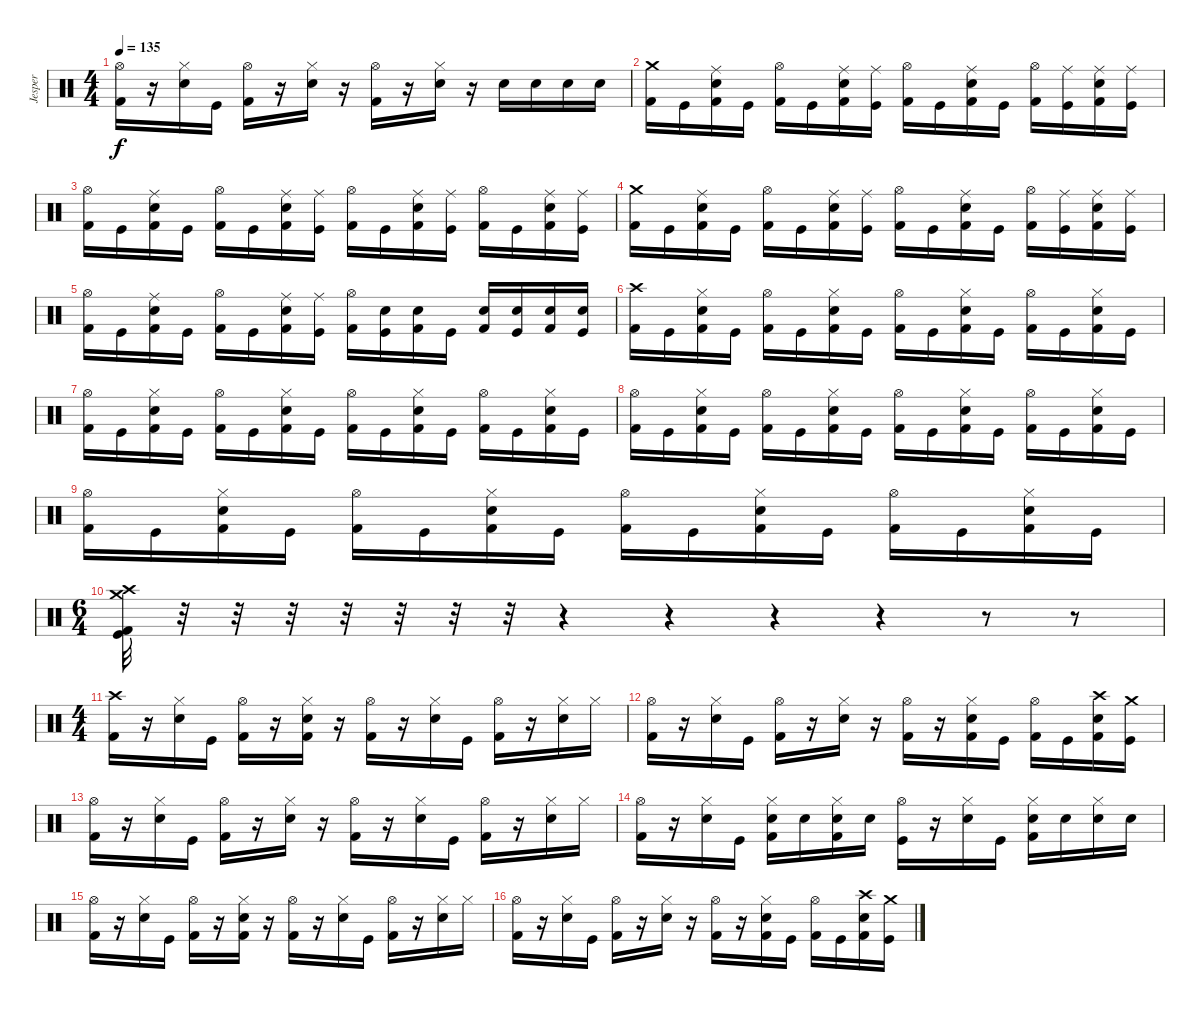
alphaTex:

\track ("Jesper" "Jesper") {instrument percussion}
\staff {score}
\articulation defaults
\ts (4 4)
\tempo 135
\clef neutral
\ks c
("Kick (hit) 2" "Hi-Hat (open)").16{dy f} r.16 ("Snare (hit) 2" "Hi-Hat (closed)").16 "Kick (hit)".16 ("Kick (hit) 2" "Hi-Hat (open)").16 r.16 ("Snare (hit) 2" "Hi-Hat (closed)").16 r.16 ("Kick (hit) 2" "Hi-Hat (open)").16 r.16 ("Snare (hit) 2" "Hi-Hat (closed)").16 r.16 "Snare (hit) 2".16 "Snare (hit) 2".16 "Snare (hit) 2".16 "Snare (hit) 2".16 |
("Kick (hit) 2" "Crash medium (hit)").16 "Kick (hit)".16 ("Kick (hit) 2" "Snare (hit) 2" "Ride (middle)").16 "Kick (hit)".16 ("Kick (hit) 2" "Hi-Hat (open)").16 "Kick (hit)".16 ("Kick (hit) 2" "Snare (hit) 2" "Ride (middle)").16 ("Kick (hit)" "Ride (middle)").16 ("Kick (hit) 2" "Hi-Hat (open)").16 "Kick (hit)".16 ("Kick (hit) 2" "Snare (hit) 2" "Ride (middle)").16 "Kick (hit)".16 ("Kick (hit) 2" "Hi-Hat (open)").16 ("Kick (hit)" "Ride (middle)").16 ("Kick (hit) 2" "Snare (hit) 2" "Ride (middle)").16 ("Kick (hit)" "Ride (middle)").16 |
("Kick (hit) 2" "Hi-Hat (open)").16 "Kick (hit)".16 ("Kick (hit) 2" "Snare (hit) 2" "Ride (middle)").16 "Kick (hit)".16 ("Kick (hit) 2" "Hi-Hat (open)").16 "Kick (hit)".16 ("Kick (hit) 2" "Snare (hit) 2" "Ride (middle)").16 ("Kick (hit)" "Ride (middle)").16 ("Kick (hit) 2" "Hi-Hat (open)").16 "Kick (hit)".16 ("Kick (hit) 2" "Snare (hit) 2" "Ride (middle)").16 ("Kick (hit)" "Ride (middle)").16 ("Kick (hit) 2" "Hi-Hat (open)").16 "Kick (hit)".16 ("Kick (hit) 2" "Snare (hit) 2" "Ride (middle)").16 ("Kick (hit)" "Ride (middle)").16 |
("Kick (hit) 2" "Crash medium (hit)").16 "Kick (hit)".16 ("Kick (hit) 2" "Snare (hit) 2" "Ride (middle)").16 "Kick (hit)".16 ("Kick (hit) 2" "Hi-Hat (open)").16 "Kick (hit)".16 ("Kick (hit) 2" "Snare (hit) 2" "Ride (middle)").16 ("Kick (hit)" "Ride (middle)").16 ("Kick (hit) 2" "Hi-Hat (open)").16 "Kick (hit)".16 ("Kick (hit) 2" "Snare (hit) 2" "Ride (middle)").16 "Kick (hit)".16 ("Kick (hit) 2" "Hi-Hat (open)").16 ("Kick (hit)" "Ride (middle)").16 ("Kick (hit) 2" "Snare (hit) 2" "Ride (middle)").16 ("Kick (hit)" "Ride (middle)").16 |
("Kick (hit) 2" "Hi-Hat (open)").16 "Kick (hit)".16 ("Kick (hit) 2" "Snare (hit) 2" "Ride (middle)").16 "Kick (hit)".16 ("Kick (hit) 2" "Hi-Hat (open)").16 "Kick (hit)".16 ("Kick (hit) 2" "Snare (hit) 2" "Ride (middle)").16 ("Kick (hit)" "Ride (middle)").16 ("Kick (hit) 2" "Hi-Hat (open)").16 ("Kick (hit)" "Snare (hit) 2").16 ("Kick (hit) 2" "Snare (hit) 2").16 "Kick (hit)".16 ("Kick (hit) 2" "Snare (hit) 2").16 ("Kick (hit)" "Snare (hit) 2").16 ("Kick (hit) 2" "Snare (hit) 2").16 ("Kick (hit)" "Snare (hit) 2").16 |
("Kick (hit) 2" "Crash high (hit)").16 "Kick (hit)".16 ("Kick (hit) 2" "Snare (hit) 2" "Hi-Hat (closed)").16 "Kick (hit)".16 ("Kick (hit) 2" "Hi-Hat (open)").16 "Kick (hit)".16 ("Kick (hit) 2" "Snare (hit) 2" "Hi-Hat (closed)").16 "Kick (hit)".16 ("Kick (hit) 2" "Hi-Hat (open)").16 "Kick (hit)".16 ("Kick (hit) 2" "Snare (hit) 2" "Hi-Hat (closed)").16 "Kick (hit)".16 ("Kick (hit) 2" "Hi-Hat (open)").16 "Kick (hit)".16 ("Kick (hit) 2" "Snare (hit) 2" "Hi-Hat (closed)").16 "Kick (hit)".16 |
("Kick (hit) 2" "Hi-Hat (open)").16 "Kick (hit)".16 ("Kick (hit) 2" "Snare (hit) 2" "Hi-Hat (closed)").16 "Kick (hit)".16 ("Kick (hit) 2" "Hi-Hat (open)").16 "Kick (hit)".16 ("Kick (hit) 2" "Snare (hit) 2" "Hi-Hat (closed)").16 "Kick (hit)".16 ("Kick (hit) 2" "Hi-Hat (open)").16 "Kick (hit)".16 ("Kick (hit) 2" "Snare (hit) 2" "Hi-Hat (closed)").16 "Kick (hit)".16 ("Kick (hit) 2" "Hi-Hat (open)").16 "Kick (hit)".16 ("Kick (hit) 2" "Snare (hit) 2" "Hi-Hat (closed)").16 "Kick (hit)".16 |
("Kick (hit) 2" "Hi-Hat (open)").16 "Kick (hit)".16 ("Kick (hit) 2" "Snare (hit) 2" "Hi-Hat (closed)").16 "Kick (hit)".16 ("Kick (hit) 2" "Hi-Hat (open)").16 "Kick (hit)".16 ("Kick (hit) 2" "Snare (hit) 2" "Hi-Hat (closed)").16 "Kick (hit)".16 ("Kick (hit) 2" "Hi-Hat (open)").16 "Kick (hit)".16 ("Kick (hit) 2" "Snare (hit) 2" "Hi-Hat (closed)").16 "Kick (hit)".16 ("Kick (hit) 2" "Hi-Hat (open)").16 "Kick (hit)".16 ("Kick (hit) 2" "Snare (hit) 2" "Hi-Hat (closed)").16 "Kick (hit)".16 |
("Kick (hit) 2" "Hi-Hat (open)").16 "Kick (hit)".16 ("Kick (hit) 2" "Snare (hit) 2" "Hi-Hat (closed)").16 "Kick (hit)".16 ("Kick (hit) 2" "Hi-Hat (open)").16 "Kick (hit)".16 ("Kick (hit) 2" "Snare (hit) 2" "Hi-Hat (closed)").16 "Kick (hit)".16 ("Kick (hit) 2" "Hi-Hat (open)").16 "Kick (hit)".16 ("Kick (hit) 2" "Snare (hit) 2" "Hi-Hat (closed)").16 "Kick (hit)".16 ("Kick (hit) 2" "Hi-Hat (open)").16 "Kick (hit)".16 ("Kick (hit) 2" "Snare (hit) 2" "Hi-Hat (closed)").16 "Kick (hit)".16 |
\ts (6 4)
("Kick (hit) 2" "Kick (hit)" "Crash medium (hit)" "Crash high (hit)").32 r.32 r.32 r.32 r.32 r.32 r.32 r.32 r.4 r.4 r.4 r.4 r.8 r.8 |
\ts (4 4)
("Kick (hit) 2" "Crash high (hit)").16 r.16 ("Snare (hit) 2" "Hi-Hat (closed)").16 "Kick (hit)".16 ("Kick (hit) 2" "Hi-Hat (open)").16 r.16 ("Kick (hit) 2" "Snare (hit) 2" "Hi-Hat (closed)").16 r.16 ("Kick (hit) 2" "Hi-Hat (open)").16 r.16 ("Snare (hit) 2" "Hi-Hat (closed)").16 "Kick (hit)".16 ("Kick (hit) 2" "Hi-Hat (open)").16 r.16 ("Snare (hit) 2" "Hi-Hat (closed)").16 "Hi-Hat (closed)".16 |
("Kick (hit) 2" "Hi-Hat (open)").16 r.16 ("Snare (hit) 2" "Hi-Hat (closed)").16 "Kick (hit)".16 ("Kick (hit) 2" "Hi-Hat (open)").16 r.16 ("Snare (hit) 2" "Hi-Hat (closed)").16 r.16 ("Kick (hit) 2" "Hi-Hat (open)").16 r.16 ("Kick (hit) 2" "Snare (hit) 2" "Hi-Hat (closed)").16 "Kick (hit)".16 ("Kick (hit) 2" "Hi-Hat (open)").16 "Kick (hit)".16 ("Kick (hit) 2" "Snare (hit) 2" "Crash high (hit)").16 ("Kick (hit)" "Crash medium (hit)").16 |
("Kick (hit) 2" "Hi-Hat (open)").16 r.16 ("Snare (hit) 2" "Hi-Hat (closed)").16 "Kick (hit)".16 ("Kick (hit) 2" "Hi-Hat (open)").16 r.16 ("Snare (hit) 2" "Hi-Hat (closed)").16 r.16 ("Kick (hit) 2" "Hi-Hat (open)").16 r.16 ("Snare (hit) 2" "Hi-Hat (closed)").16 "Kick (hit)".16 ("Kick (hit) 2" "Hi-Hat (open)").16 r.16 ("Snare (hit) 2" "Hi-Hat (closed)").16 "Hi-Hat (closed)".16 |
("Kick (hit) 2" "Hi-Hat (open)").16 r.16 ("Snare (hit) 2" "Hi-Hat (closed)").16 "Kick (hit)".16 ("Kick (hit) 2" "Snare (hit) 2" "Hi-Hat (closed)").16 "Snare (hit) 2".16 ("Kick (hit) 2" "Snare (hit) 2" "Hi-Hat (closed)").16 "Snare (hit) 2".16 ("Kick (hit)" "Hi-Hat (open)").16 r.16 ("Snare (hit) 2" "Hi-Hat (closed)").16 "Kick (hit)".16 ("Kick (hit) 2" "Snare (hit) 2" "Hi-Hat (closed)").16 "Snare (hit) 2".16 ("Snare (hit) 2" "Hi-Hat (closed)").16 "Snare (hit) 2".16 |
("Kick (hit) 2" "Hi-Hat (open)").16 r.16 ("Snare (hit) 2" "Hi-Hat (closed)").16 "Kick (hit)".16 ("Kick (hit) 2" "Hi-Hat (open)").16 r.16 ("Kick (hit) 2" "Snare (hit) 2" "Hi-Hat (closed)").16 r.16 ("Kick (hit) 2" "Hi-Hat (open)").16 r.16 ("Snare (hit) 2" "Hi-Hat (closed)").16 "Kick (hit)".16 ("Kick (hit) 2" "Hi-Hat (open)").16 r.16 ("Snare (hit) 2" "Hi-Hat (closed)").16 "Hi-Hat (closed)".16 |
("Kick (hit) 2" "Hi-Hat (open)").16 r.16 ("Snare (hit) 2" "Hi-Hat (closed)").16 "Kick (hit)".16 ("Kick (hit) 2" "Hi-Hat (open)").16 r.16 ("Snare (hit) 2" "Hi-Hat (closed)").16 r.16 ("Kick (hit) 2" "Hi-Hat (open)").16 r.16 ("Kick (hit) 2" "Snare (hit) 2" "Hi-Hat (closed)").16 "Kick (hit)".16 ("Kick (hit) 2" "Hi-Hat (open)").16 "Kick (hit)".16 ("Kick (hit) 2" "Snare (hit) 2" "Crash high (hit)").16 ("Kick (hit)" "Crash medium (hit)").16
